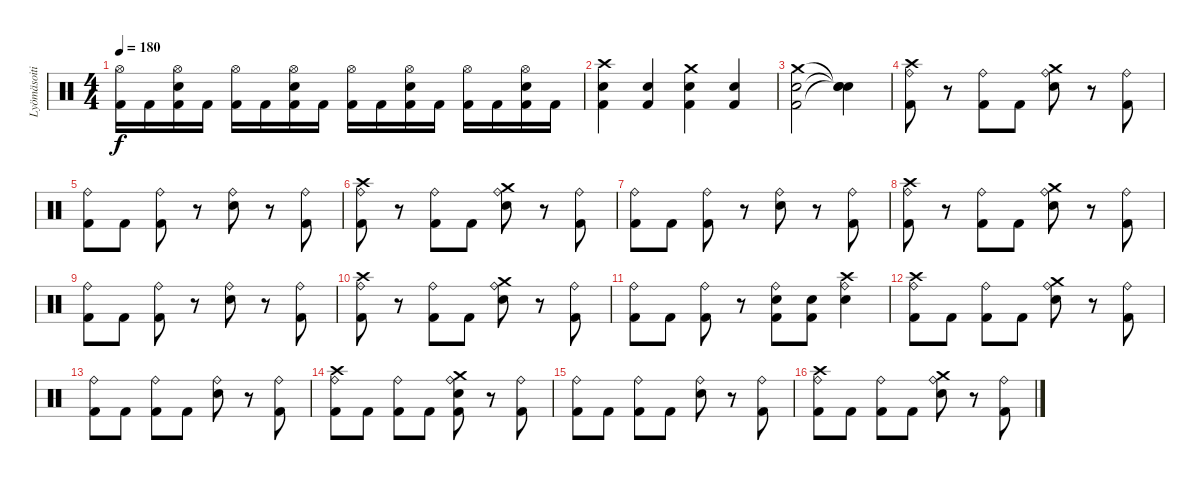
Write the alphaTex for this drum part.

\track ("Lyömäsoitin" "Lyömäsoiti") {instrument percussion}
\staff {score}
\articulation defaults
\ts (4 4)
\tempo 180
\clef neutral
\ks c
("Kick (hit) 2" "Hi-Hat (open)").16{dy f} "Kick (hit) 2".16 ("Kick (hit) 2" "Snare (hit) 2" "Hi-Hat (open)").16 "Kick (hit) 2".16 ("Kick (hit) 2" "Hi-Hat (open)").16 "Kick (hit) 2".16 ("Kick (hit) 2" "Snare (hit) 2" "Hi-Hat (open)").16 "Kick (hit) 2".16 ("Kick (hit) 2" "Hi-Hat (open)").16 "Kick (hit) 2".16 ("Kick (hit) 2" "Snare (hit) 2" "Hi-Hat (open)").16 "Kick (hit) 2".16 ("Kick (hit) 2" "Hi-Hat (open)").16 "Kick (hit) 2".16 ("Kick (hit) 2" "Snare (hit) 2" "Hi-Hat (open)").16 "Kick (hit) 2".16 |
("Kick (hit) 2" "Snare (hit) 2" "Crash high (hit)").4 ("Kick (hit) 2" "Snare (hit) 2").4 ("Kick (hit) 2" "Snare (hit) 2" "Crash medium (hit)").4 ("Kick (hit) 2" "Snare (hit) 2").4 |
("Kick (hit) 2" "Snare (hit) 2" "Crash medium (hit)").2 ("Snare (hit)"{t} "Snare (hit)"{t} "Snare (hit)"{t}).4 |
("Ride (bell)" "Kick (hit) 2" "Crash high (hit)").8 r.8 ("Ride (bell)" "Kick (hit) 2").8 "Kick (hit) 2".8 ("Ride (bell)" "Snare (hit) 2" "Crash medium (hit)").8 r.8 ("Ride (bell)" "Kick (hit) 2").8 |
("Ride (bell)" "Kick (hit) 2").8 "Kick (hit) 2".8 ("Ride (bell)" "Kick (hit) 2").8 r.8 ("Ride (bell)" "Snare (hit) 2").8 r.8 ("Ride (bell)" "Kick (hit) 2").8 |
("Ride (bell)" "Kick (hit) 2" "Crash high (hit)").8 r.8 ("Ride (bell)" "Kick (hit) 2").8 "Kick (hit) 2".8 ("Ride (bell)" "Snare (hit) 2" "Crash medium (hit)").8 r.8 ("Ride (bell)" "Kick (hit) 2").8 |
("Ride (bell)" "Kick (hit) 2").8 "Kick (hit) 2".8 ("Ride (bell)" "Kick (hit) 2").8 r.8 ("Ride (bell)" "Snare (hit) 2").8 r.8 ("Ride (bell)" "Kick (hit) 2").8 |
("Ride (bell)" "Kick (hit) 2" "Crash high (hit)").8 r.8 ("Ride (bell)" "Kick (hit) 2").8 "Kick (hit) 2".8 ("Ride (bell)" "Snare (hit) 2" "Crash medium (hit)").8 r.8 ("Ride (bell)" "Kick (hit) 2").8 |
("Ride (bell)" "Kick (hit) 2").8 "Kick (hit) 2".8 ("Ride (bell)" "Kick (hit) 2").8 r.8 ("Ride (bell)" "Snare (hit) 2").8 r.8 ("Ride (bell)" "Kick (hit) 2").8 |
("Ride (bell)" "Kick (hit) 2" "Crash high (hit)").8 r.8 ("Ride (bell)" "Kick (hit) 2").8 "Kick (hit) 2".8 ("Ride (bell)" "Snare (hit) 2" "Crash medium (hit)").8 r.8 ("Ride (bell)" "Kick (hit) 2").8 |
("Ride (bell)" "Kick (hit) 2").8 "Kick (hit) 2".8 ("Ride (bell)" "Kick (hit) 2").8 r.8 ("Ride (bell)" "Kick (hit) 2" "Snare (hit) 2").8 ("Kick (hit) 2" "Snare (hit) 2").8 ("Ride (bell)" "Crash high (hit)" "Snare (hit) 2").4 |
("Ride (bell)" "Kick (hit) 2" "Crash high (hit)").8 "Kick (hit) 2".8 ("Ride (bell)" "Kick (hit) 2").8 "Kick (hit) 2".8 ("Ride (bell)" "Snare (hit) 2" "Crash medium (hit)").8 r.8 ("Ride (bell)" "Kick (hit) 2").8 |
("Ride (bell)" "Kick (hit) 2").8 "Kick (hit) 2".8 ("Ride (bell)" "Kick (hit) 2").8 "Kick (hit) 2".8 ("Ride (bell)" "Snare (hit) 2").8 r.8 ("Ride (bell)" "Kick (hit) 2").8 |
("Ride (bell)" "Kick (hit) 2" "Crash high (hit)").8 "Kick (hit) 2".8 ("Ride (bell)" "Kick (hit) 2").8 "Kick (hit) 2".8 ("Ride (bell)" "Kick (hit) 2" "Snare (hit) 2" "Crash medium (hit)").8 r.8 ("Ride (bell)" "Kick (hit) 2").8 |
("Ride (bell)" "Kick (hit) 2").8 "Kick (hit) 2".8 ("Ride (bell)" "Kick (hit) 2").8 "Kick (hit) 2".8 ("Ride (bell)" "Snare (hit) 2").8 r.8 ("Ride (bell)" "Kick (hit) 2").8 |
("Ride (bell)" "Kick (hit) 2" "Crash high (hit)").8 "Kick (hit) 2".8 ("Ride (bell)" "Kick (hit) 2").8 "Kick (hit) 2".8 ("Ride (bell)" "Snare (hit) 2" "Crash medium (hit)").8 r.8 ("Ride (bell)" "Kick (hit) 2").8
